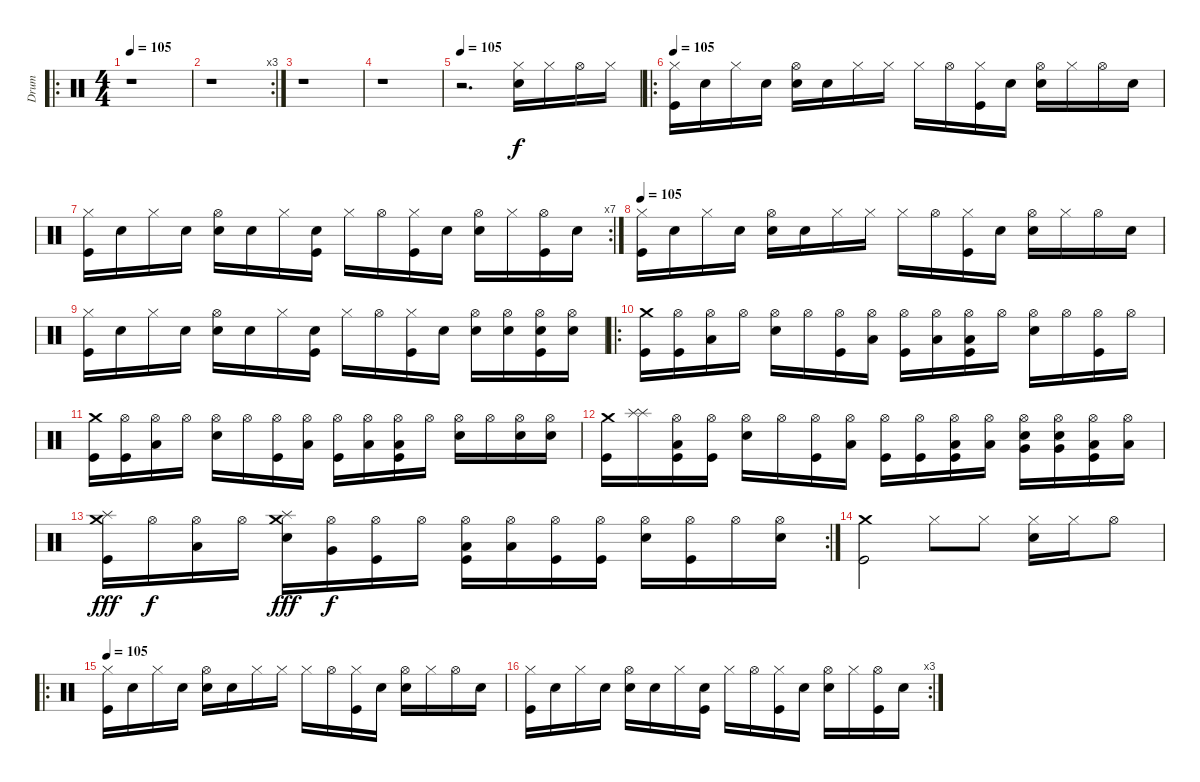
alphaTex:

\track ("Drum" "Drum") {instrument percussion}
\staff {score}
\articulation defaults
\ro
\ts (4 4)
\tempo 105
\tempo 90
\tempo 105
\clef neutral
\ks c
r.1{dy f} |
\rc 3
r.1 |
r.1 |
r.1 |
\tempo 105
r.2{d} ("Hi-Hat (closed)" "Snare (hit) 2").16 "Hi-Hat (closed)".16 "Hi-Hat (open)".16 "Hi-Hat (closed)".16 |
\ro
\tempo 105
("Hi-Hat (closed)" "Kick (hit)").16 "Snare (hit)".16 "Hi-Hat (closed)".16 "Snare (hit)".16 ("Hi-Hat (open)" "Snare (hit) 2").16 "Snare (hit)".16 "Hi-Hat (closed)".16 "Hi-Hat (closed)".16 "Hi-Hat (closed)".16 "Hi-Hat (open)".16 ("Hi-Hat (closed)" "Kick (hit)").16 "Snare (hit)".16 ("Hi-Hat (open)" "Snare (hit) 2").16 "Hi-Hat (closed)".16 "Hi-Hat (open)".16 "Snare (hit)".16 |
\rc 7
("Hi-Hat (closed)" "Kick (hit)").16 "Snare (hit)".16 "Hi-Hat (closed)".16 "Snare (hit)".16 ("Hi-Hat (open)" "Snare (hit) 2").16 "Snare (hit)".16 "Hi-Hat (closed)".16 ("Snare (hit)" "Kick (hit)").16 "Hi-Hat (closed)".16 "Hi-Hat (open)".16 ("Hi-Hat (closed)" "Kick (hit)").16 "Snare (hit)".16 ("Hi-Hat (open)" "Snare (hit) 2").16 "Hi-Hat (closed)".16 ("Hi-Hat (open)" "Kick (hit)").16 "Snare (hit)".16 |
\tempo 105
("Hi-Hat (closed)" "Kick (hit)").16 "Snare (hit)".16 "Hi-Hat (closed)".16 "Snare (hit)".16 ("Hi-Hat (open)" "Snare (hit) 2").16 "Snare (hit)".16 "Hi-Hat (closed)".16 "Hi-Hat (closed)".16 "Hi-Hat (closed)".16 "Hi-Hat (open)".16 ("Hi-Hat (closed)" "Kick (hit)").16 "Snare (hit)".16 ("Hi-Hat (open)" "Snare (hit) 2").16 "Hi-Hat (closed)".16 "Hi-Hat (open)".16 "Snare (hit)".16 |
("Hi-Hat (closed)" "Kick (hit)").16 "Snare (hit)".16 "Hi-Hat (closed)".16 "Snare (hit)".16 ("Hi-Hat (open)" "Snare (hit) 2").16 "Snare (hit)".16 "Hi-Hat (closed)".16 ("Snare (hit)" "Kick (hit)").16 "Hi-Hat (closed)".16 "Hi-Hat (open)".16 ("Hi-Hat (closed)" "Kick (hit)").16 "Snare (hit)".16 ("Hi-Hat (open)" "Snare (hit) 2").16 ("Hi-Hat (open)" "Snare (hit) 2").16 ("Hi-Hat (open)" "Snare (hit) 2" "Kick (hit)").16 ("Hi-Hat (open)" "Snare (hit) 2").16 |
\ro
("Crash medium (hit)" "Kick (hit)").16{volume 16} ("Hi-Hat (open)" "Kick (hit)").16 ("Hi-Hat (open)" "Low Floor Tom (hit)").16 "Hi-Hat (open)".16 ("Hi-Hat (open)" "Snare (hit) 2").16 "Hi-Hat (open)".16 ("Hi-Hat (open)" "Kick (hit)").16 ("Hi-Hat (open)" "Low Tom (hit)").16 ("Hi-Hat (open)" "Kick (hit)").16 ("Hi-Hat (open)" "Low Tom (hit)").16 ("Hi-Hat (open)" "Low Tom (hit)" "Kick (hit)").16 "Hi-Hat (open)".16 ("Hi-Hat (open)" "Snare (hit) 2").16 "Hi-Hat (open)".16 ("Hi-Hat (open)" "Kick (hit)").16 "Hi-Hat (open)".16 |
("Crash medium (hit)" "Kick (hit)").16 ("Hi-Hat (open)" "Kick (hit)").16 ("Hi-Hat (open)" "Low Floor Tom (hit)").16 "Hi-Hat (open)".16 ("Hi-Hat (open)" "Snare (hit) 2").16 "Hi-Hat (open)".16 ("Hi-Hat (open)" "Kick (hit)").16 ("Hi-Hat (open)" "Low Tom (hit)").16 ("Hi-Hat (open)" "Kick (hit)").16 ("Hi-Hat (open)" "Low Tom (hit)").16 ("Hi-Hat (open)" "Low Tom (hit)" "Kick (hit)").16 "Hi-Hat (open)".16 ("Hi-Hat (open)" "Snare (hit) 2").16 "Hi-Hat (open)".16 ("Hi-Hat (open)" "Snare (hit) 2").16 ("Hi-Hat (open)" "Snare (hit) 2").16 |
("Crash medium (hit)" "Kick (hit)").16 ("Splash (hit)" "Splash (hit)").16 ("Hi-Hat (open)" "Low Floor Tom (hit)" "Kick (hit)").16 ("Hi-Hat (open)" "Kick (hit)").16 ("Hi-Hat (open)" "Snare (hit) 2").16 "Hi-Hat (open)".16 ("Hi-Hat (open)" "Kick (hit)").16 ("Hi-Hat (open)" "Low Tom (hit)").16 ("Hi-Hat (open)" "Kick (hit)").16 ("Hi-Hat (open)" "Kick (hit)").16 ("Hi-Hat (open)" "Low Tom (hit)" "Kick (hit)").16 ("Hi-Hat (open)" "Low Tom (hit)").16 ("Hi-Hat (open)" "Very Low Tom (hit)" "Electric Snare (hit)").16 ("Hi-Hat (open)" "Very Low Tom (hit)" "Electric Snare (hit)").16 ("Hi-Hat (open)" "Low Floor Tom (hit)" "Kick (hit)").16 ("Hi-Hat (open)" "Low Floor Tom (hit)").16 |
\rc 2
("Crash medium (hit)" "Splash (hit)" "Kick (hit)").16{dy fff} "Hi-Hat (open)".16{dy f} ("Hi-Hat (open)" "Low Tom (hit)").16 "Hi-Hat (open)".16 ("Crash medium (hit)" "Splash (hit)" "Snare (hit) 2").16{dy fff} ("Hi-Hat (open)" "Very Low Tom (hit)").16{dy f} ("Hi-Hat (open)" "Kick (hit)").16 "Hi-Hat (open)".16 ("Hi-Hat (open)" "Low Floor Tom (hit)" "Kick (hit)").16 ("Hi-Hat (open)" "Low Floor Tom (hit)").16 ("Hi-Hat (open)" "Kick (hit)").16 ("Hi-Hat (open)" "Kick (hit)").16 ("Hi-Hat (open)" "Snare (hit) 2").16 ("Hi-Hat (open)" "Kick (hit)").16 "Hi-Hat (open)".16 ("Hi-Hat (open)" "Snare (hit) 2").16 |
("Crash medium (hit)" "Kick (hit)").2 "Hi-Hat (closed)".8 "Hi-Hat (closed)".8 ("Hi-Hat (closed)" "Snare (hit) 2").16 "Hi-Hat (closed)".16 "Hi-Hat (open)".8 |
\ro
\tempo 105
("Hi-Hat (closed)" "Kick (hit)").16{volume 13} "Snare (hit)".16 "Hi-Hat (closed)".16 "Snare (hit)".16 ("Hi-Hat (open)" "Snare (hit) 2").16 "Snare (hit)".16 "Hi-Hat (closed)".16 "Hi-Hat (closed)".16 "Hi-Hat (closed)".16 "Hi-Hat (open)".16 ("Hi-Hat (closed)" "Kick (hit)").16 "Snare (hit)".16 ("Hi-Hat (open)" "Snare (hit) 2").16 "Hi-Hat (closed)".16 "Hi-Hat (open)".16 "Snare (hit)".16 |
\rc 3
("Hi-Hat (closed)" "Kick (hit)").16 "Snare (hit)".16 "Hi-Hat (closed)".16 "Snare (hit)".16 ("Hi-Hat (open)" "Snare (hit) 2").16 "Snare (hit)".16 "Hi-Hat (closed)".16 ("Snare (hit)" "Kick (hit)").16 "Hi-Hat (closed)".16 "Hi-Hat (open)".16 ("Hi-Hat (closed)" "Kick (hit)").16 "Snare (hit)".16 ("Hi-Hat (open)" "Snare (hit) 2").16 "Hi-Hat (closed)".16 ("Hi-Hat (open)" "Kick (hit)").16 "Snare (hit)".16
